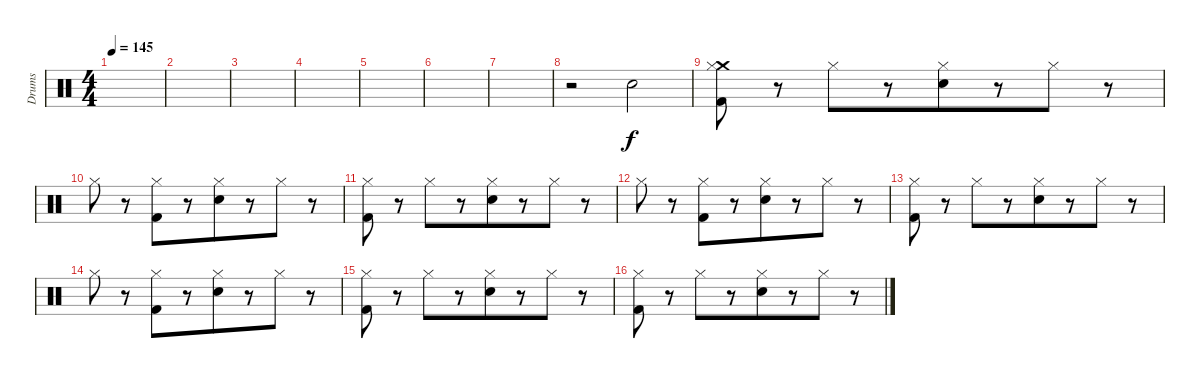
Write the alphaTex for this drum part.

\track ("Drums" "Drums") {instrument percussion bank 245}
\staff {score}
\articulation defaults
\ts (4 4)
\tempo 145
\clef neutral
\ks c
|
|
|
|
|
|
|
r.2 "Electric Snare (hit)".2 |
("Crash medium (hit)" "Kick (hit) 2" "Hi-Hat (closed)").8 r.8{beam merge} "Hi-Hat (closed)".8{beam merge} r.8 ("Electric Snare (hit)" "Hi-Hat (closed)").8{beam merge} r.8 "Hi-Hat (closed)".8{beam merge} r.8 |
"Hi-Hat (closed)".8 r.8{beam merge} ("Kick (hit) 2" "Hi-Hat (closed)").8{beam merge} r.8 ("Electric Snare (hit)" "Hi-Hat (closed)").8{beam merge} r.8 "Hi-Hat (closed)".8{beam merge} r.8 |
("Kick (hit) 2" "Hi-Hat (closed)").8 r.8{beam merge} "Hi-Hat (closed)".8{beam merge} r.8 ("Electric Snare (hit)" "Hi-Hat (closed)").8{beam merge} r.8 "Hi-Hat (closed)".8{beam merge} r.8 |
"Hi-Hat (closed)".8 r.8{beam merge} ("Kick (hit) 2" "Hi-Hat (closed)").8{beam merge} r.8 ("Electric Snare (hit)" "Hi-Hat (closed)").8{beam merge} r.8 "Hi-Hat (closed)".8{beam merge} r.8 |
("Kick (hit) 2" "Hi-Hat (closed)").8 r.8{beam merge} "Hi-Hat (closed)".8{beam merge} r.8 ("Electric Snare (hit)" "Hi-Hat (closed)").8{beam merge} r.8 "Hi-Hat (closed)".8{beam merge} r.8 |
"Hi-Hat (closed)".8 r.8{beam merge} ("Kick (hit) 2" "Hi-Hat (closed)").8{beam merge} r.8 ("Electric Snare (hit)" "Hi-Hat (closed)").8{beam merge} r.8 "Hi-Hat (closed)".8{beam merge} r.8 |
("Kick (hit) 2" "Hi-Hat (closed)").8 r.8{beam merge} "Hi-Hat (closed)".8{beam merge} r.8 ("Electric Snare (hit)" "Hi-Hat (closed)").8{beam merge} r.8 "Hi-Hat (closed)".8{beam merge} r.8 |
("Kick (hit) 2" "Hi-Hat (closed)").8 r.8{beam merge} "Hi-Hat (closed)".8{beam merge} r.8 ("Electric Snare (hit)" "Hi-Hat (closed)").8{beam merge} r.8 "Hi-Hat (closed)".8{beam merge} r.8
